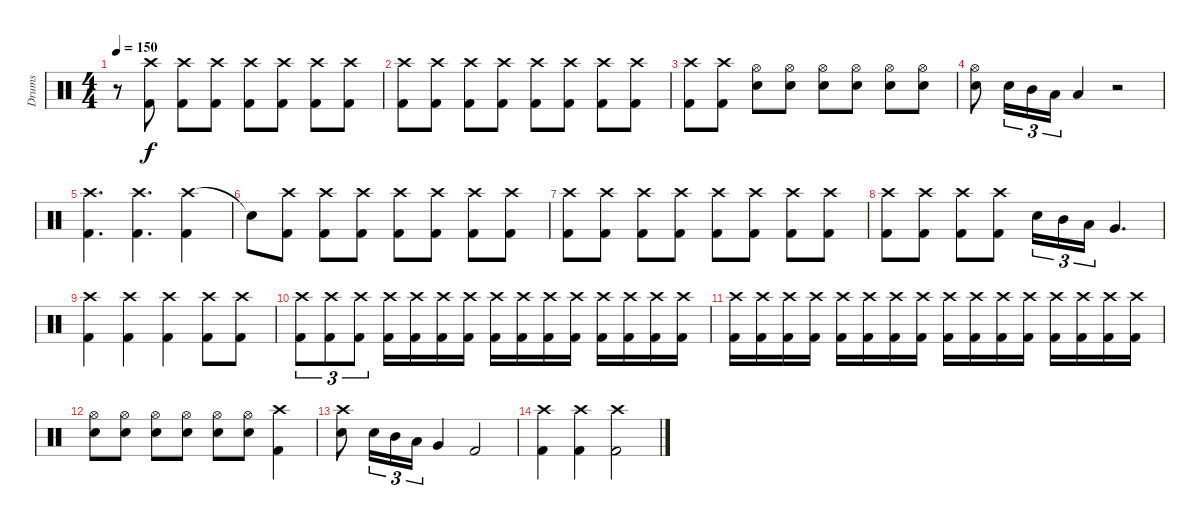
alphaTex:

\track ("Drums" "Drums") {instrument percussion}
\staff {score}
\articulation defaults
\ts (4 4)
\tempo 150
\clef neutral
\ks c
r.8{dy f} ("Crash high (hit)" "Kick (hit) 2").8 ("Crash high (hit)" "Kick (hit) 2").8 ("Crash high (hit)" "Kick (hit) 2").8 ("Crash high (hit)" "Kick (hit) 2").8 ("Crash high (hit)" "Kick (hit) 2").8 ("Crash high (hit)" "Kick (hit) 2").8 ("Crash high (hit)" "Kick (hit) 2").8 |
("Crash high (hit)" "Kick (hit) 2").8 ("Crash high (hit)" "Kick (hit) 2").8 ("Crash high (hit)" "Kick (hit) 2").8 ("Crash high (hit)" "Kick (hit) 2").8 ("Crash high (hit)" "Kick (hit) 2").8 ("Crash high (hit)" "Kick (hit) 2").8 ("Crash high (hit)" "Kick (hit) 2").8 ("Crash high (hit)" "Kick (hit) 2").8 |
("Crash high (hit)" "Kick (hit) 2").8 ("Crash high (hit)" "Kick (hit) 2").8 ("Hi-Hat (open)" "Electric Snare (hit)").8 ("Hi-Hat (open)" "Electric Snare (hit)").8 ("Hi-Hat (open)" "Electric Snare (hit)").8 ("Hi-Hat (open)" "Electric Snare (hit)").8 ("Hi-Hat (open)" "Electric Snare (hit)").8 ("Hi-Hat (open)" "Electric Snare (hit)").8 |
("Hi-Hat (open)" "Electric Snare (hit)").8 "Electric Snare (hit)".16{tu (3 2)} "Mid Tom (hit)".16{tu (3 2)} "Low Tom (hit)".16{tu (3 2)} "Low Tom (hit)".4 r.2 |
("Crash high (hit)" "Kick (hit) 2").4{d} ("Crash high (hit)" "Kick (hit) 2").4{d} ("Crash high (hit)" "Kick (hit) 2").4 |
"Snare (hit)"{t}.8 ("Crash high (hit)" "Kick (hit) 2").8 ("Crash high (hit)" "Kick (hit) 2").8 ("Crash high (hit)" "Kick (hit) 2").8 ("Crash high (hit)" "Kick (hit) 2").8 ("Crash high (hit)" "Kick (hit) 2").8 ("Crash high (hit)" "Kick (hit) 2").8 ("Crash high (hit)" "Kick (hit) 2").8 |
("Crash high (hit)" "Kick (hit) 2").8 ("Crash high (hit)" "Kick (hit) 2").8 ("Crash high (hit)" "Kick (hit) 2").8 ("Crash high (hit)" "Kick (hit) 2").8 ("Crash high (hit)" "Kick (hit) 2").8 ("Crash high (hit)" "Kick (hit) 2").8 ("Crash high (hit)" "Kick (hit) 2").8 ("Crash high (hit)" "Kick (hit) 2").8 |
("Crash high (hit)" "Kick (hit) 2").8 ("Crash high (hit)" "Kick (hit) 2").8 ("Crash high (hit)" "Kick (hit) 2").8 ("Crash high (hit)" "Kick (hit) 2").8 "Electric Snare (hit)".16{tu (3 2)} "Mid Tom (hit)".16{tu (3 2)} "Low Tom (hit)".16{tu (3 2)} "Very Low Tom (hit)".4{d} |
("Crash high (hit)" "Kick (hit) 2").4 ("Crash high (hit)" "Kick (hit) 2").4 ("Crash high (hit)" "Kick (hit) 2").4 ("Crash high (hit)" "Kick (hit) 2").8 ("Crash high (hit)" "Kick (hit) 2").8 |
("Crash high (hit)" "Kick (hit) 2").8{tu (3 2)} ("Crash high (hit)" "Kick (hit) 2").8{tu (3 2)} ("Crash high (hit)" "Kick (hit) 2").8{tu (3 2)} ("Crash high (hit)" "Kick (hit) 2").16 ("Crash high (hit)" "Kick (hit) 2").16 ("Crash high (hit)" "Kick (hit) 2").16 ("Crash high (hit)" "Kick (hit) 2").16 ("Crash high (hit)" "Kick (hit) 2").16 ("Crash high (hit)" "Kick (hit) 2").16 ("Crash high (hit)" "Kick (hit) 2").16 ("Crash high (hit)" "Kick (hit) 2").16 ("Crash high (hit)" "Kick (hit) 2").16 ("Crash high (hit)" "Kick (hit) 2").16 ("Crash high (hit)" "Kick (hit) 2").16 ("Crash high (hit)" "Kick (hit) 2").16 |
("Crash high (hit)" "Kick (hit) 2").16 ("Crash high (hit)" "Kick (hit) 2").16 ("Crash high (hit)" "Kick (hit) 2").16 ("Crash high (hit)" "Kick (hit) 2").16 ("Crash high (hit)" "Kick (hit) 2").16 ("Crash high (hit)" "Kick (hit) 2").16 ("Crash high (hit)" "Kick (hit) 2").16 ("Crash high (hit)" "Kick (hit) 2").16 ("Crash high (hit)" "Kick (hit) 2").16 ("Crash high (hit)" "Kick (hit) 2").16 ("Crash high (hit)" "Kick (hit) 2").16 ("Crash high (hit)" "Kick (hit) 2").16 ("Crash high (hit)" "Kick (hit) 2").16 ("Crash high (hit)" "Kick (hit) 2").16 ("Crash high (hit)" "Kick (hit) 2").16 ("Crash high (hit)" "Kick (hit) 2").16 |
("Hi-Hat (open)" "Electric Snare (hit)").8 ("Hi-Hat (open)" "Electric Snare (hit)").8 ("Hi-Hat (open)" "Electric Snare (hit)").8 ("Hi-Hat (open)" "Electric Snare (hit)").8 ("Hi-Hat (open)" "Electric Snare (hit)").8 ("Hi-Hat (open)" "Electric Snare (hit)").8 ("Crash high (hit)" "Kick (hit) 2").4 |
("Crash high (hit)" "Electric Snare (hit)").8 "Electric Snare (hit)".16{tu (3 2)} "Mid Tom (hit)".16{tu (3 2)} "Low Tom (hit)".16{tu (3 2)} "Very Low Tom (hit)".4 "Kick (hit) 2".2 |
("Crash high (hit)" "Kick (hit) 2").4 ("Crash high (hit)" "Kick (hit) 2").4 ("Crash high (hit)" "Kick (hit) 2").2
